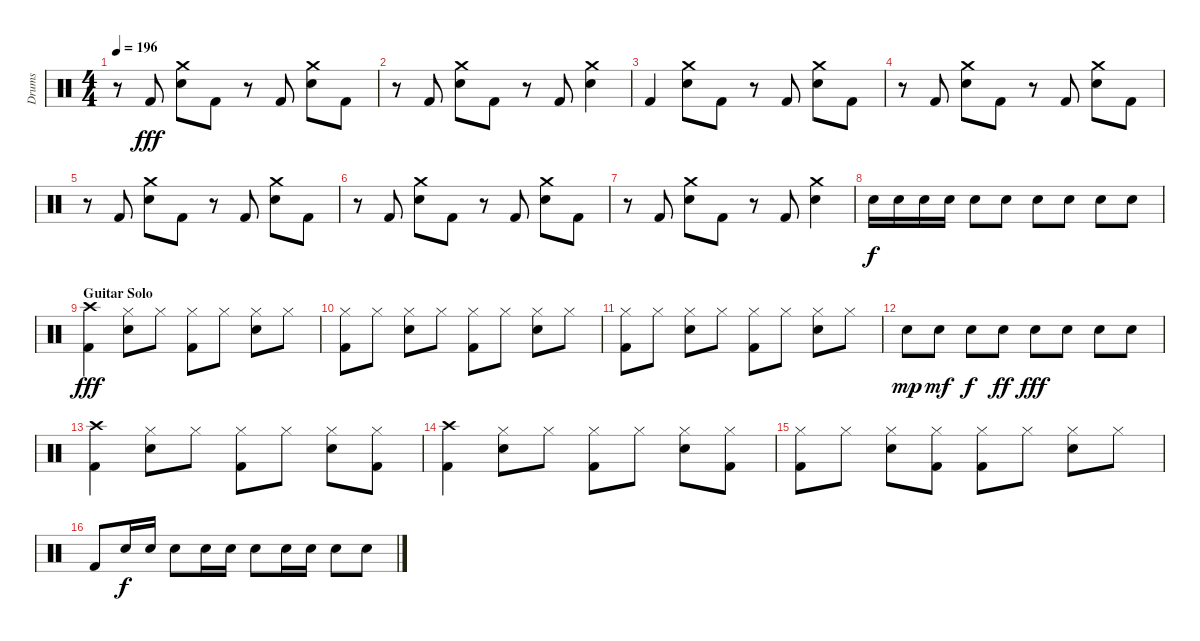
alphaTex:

\track ("Drums" "Drums") {instrument percussion}
\staff {score}
\articulation defaults
\ts (4 4)
\tempo 196
\clef neutral
\ks c
r.8{dy fff} "Kick (hit) 2".8 ("Crash medium (hit)" "Snare (hit) 2").8 "Kick (hit) 2".8 r.8 "Kick (hit) 2".8 ("Crash medium (hit)" "Snare (hit) 2").8 "Kick (hit) 2".8 |
r.8 "Kick (hit) 2".8 ("Crash medium (hit)" "Snare (hit) 2").8 "Kick (hit) 2".8 r.8 "Kick (hit) 2".8 ("Crash medium (hit)" "Snare (hit) 2").4 |
"Kick (hit) 2".4 ("Crash medium (hit)" "Snare (hit) 2").8 "Kick (hit) 2".8 r.8 "Kick (hit) 2".8 ("Crash medium (hit)" "Snare (hit) 2").8 "Kick (hit) 2".8 |
r.8 "Kick (hit) 2".8 ("Crash medium (hit)" "Snare (hit) 2").8 "Kick (hit) 2".8 r.8 "Kick (hit) 2".8 ("Crash medium (hit)" "Snare (hit) 2").8 "Kick (hit) 2".8 |
r.8 "Kick (hit) 2".8 ("Crash medium (hit)" "Snare (hit) 2").8 "Kick (hit) 2".8 r.8 "Kick (hit) 2".8 ("Crash medium (hit)" "Snare (hit) 2").8 "Kick (hit) 2".8 |
r.8 "Kick (hit) 2".8 ("Crash medium (hit)" "Snare (hit) 2").8 "Kick (hit) 2".8 r.8 "Kick (hit) 2".8 ("Crash medium (hit)" "Snare (hit) 2").8 "Kick (hit) 2".8 |
r.8 "Kick (hit) 2".8 ("Crash medium (hit)" "Snare (hit) 2").8 "Kick (hit) 2".8 r.8 "Kick (hit) 2".8 ("Crash medium (hit)" "Snare (hit) 2").4 |
"Snare (hit) 2".16{dy f} "Snare (hit) 2".16 "Snare (hit) 2".16 "Snare (hit) 2".16 "Snare (hit) 2".8 "Snare (hit) 2".8 "Snare (hit) 2".8 "Snare (hit) 2".8 "Snare (hit) 2".8 "Snare (hit) 2".8 |
\section ("" "Guitar Solo")
("Crash high (hit)" "Kick (hit) 2").4{dy fff} ("Hi-Hat (closed)" "Snare (hit) 2").8 "Hi-Hat (closed)".8 ("Hi-Hat (closed)" "Kick (hit) 2").8 "Hi-Hat (closed)".8 ("Hi-Hat (closed)" "Snare (hit) 2").8 "Hi-Hat (closed)".8 |
("Hi-Hat (closed)" "Kick (hit) 2").8 "Hi-Hat (closed)".8 ("Hi-Hat (closed)" "Snare (hit) 2").8 "Hi-Hat (closed)".8 ("Hi-Hat (closed)" "Kick (hit) 2").8 "Hi-Hat (closed)".8 ("Hi-Hat (closed)" "Snare (hit) 2").8 "Hi-Hat (closed)".8 |
("Hi-Hat (closed)" "Kick (hit) 2").8 "Hi-Hat (closed)".8 ("Hi-Hat (closed)" "Snare (hit) 2").8 "Hi-Hat (closed)".8 ("Hi-Hat (closed)" "Kick (hit) 2").8 "Hi-Hat (closed)".8 ("Hi-Hat (closed)" "Snare (hit) 2").8 "Hi-Hat (closed)".8 |
"Snare (hit) 2".8{dy mp} "Snare (hit) 2".8{dy mf} "Snare (hit) 2".8{dy f} "Snare (hit) 2".8{dy ff} "Snare (hit) 2".8{dy fff} "Snare (hit) 2".8 "Snare (hit) 2".8 "Snare (hit) 2".8 |
("Crash high (hit)" "Kick (hit) 2").4 ("Hi-Hat (closed)" "Snare (hit) 2").8 "Hi-Hat (closed)".8 ("Hi-Hat (closed)" "Kick (hit) 2").8 "Hi-Hat (closed)".8 ("Hi-Hat (closed)" "Snare (hit) 2").8 ("Hi-Hat (closed)" "Kick (hit) 2").8 |
("Crash high (hit)" "Kick (hit) 2").4 ("Hi-Hat (closed)" "Snare (hit) 2").8 "Hi-Hat (closed)".8 ("Hi-Hat (closed)" "Kick (hit) 2").8 "Hi-Hat (closed)".8 ("Hi-Hat (closed)" "Snare (hit) 2").8 ("Hi-Hat (closed)" "Kick (hit) 2").8 |
("Hi-Hat (closed)" "Kick (hit) 2").8 "Hi-Hat (closed)".8 ("Hi-Hat (closed)" "Snare (hit) 2").8 ("Hi-Hat (closed)" "Kick (hit) 2").8 ("Hi-Hat (closed)" "Kick (hit) 2").8 "Hi-Hat (closed)".8 ("Hi-Hat (closed)" "Snare (hit) 2").8 "Hi-Hat (closed)".8 |
"Kick (hit) 2".8 "Snare (hit) 2".16{dy f} "Snare (hit) 2".16 "Snare (hit) 2".8 "Snare (hit) 2".16 "Snare (hit) 2".16 "Snare (hit) 2".8 "Snare (hit) 2".16 "Snare (hit) 2".16 "Snare (hit) 2".8 "Snare (hit) 2".8
